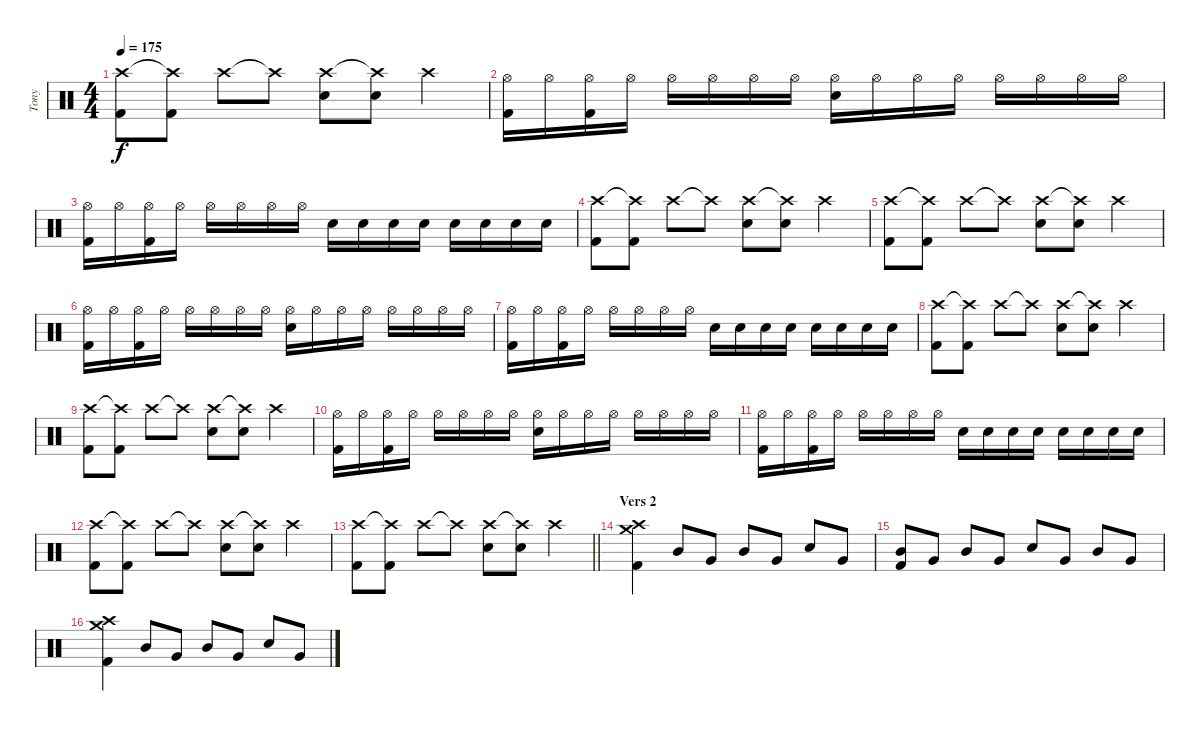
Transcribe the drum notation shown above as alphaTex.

\track ("Tony" "Tony") {instrument percussion}
\staff {score}
\articulation defaults
\ts (4 4)
\tempo 175
\clef neutral
\ks c
("Crash high (hit)" "Kick (hit) 2").8{dy f} ("Crash high (hit)"{t} "Kick (hit) 2").8 "Crash high (hit)".8 "Crash high (hit)"{t}.8 ("Crash high (hit)" "Snare (hit) 2").8 ("Crash high (hit)"{t} "Snare (hit) 2").8 "Crash high (hit)".4 |
("Hi-Hat (open)" "Kick (hit) 2").16 "Hi-Hat (open)".16 ("Hi-Hat (open)" "Kick (hit) 2").16 "Hi-Hat (open)".16 "Hi-Hat (open)".16 "Hi-Hat (open)".16 "Hi-Hat (open)".16 "Hi-Hat (open)".16 ("Hi-Hat (open)" "Snare (hit) 2").16 "Hi-Hat (open)".16 "Hi-Hat (open)".16 "Hi-Hat (open)".16 "Hi-Hat (open)".16 "Hi-Hat (open)".16 "Hi-Hat (open)".16 "Hi-Hat (open)".16 |
("Hi-Hat (open)" "Kick (hit) 2").16 "Hi-Hat (open)".16 ("Hi-Hat (open)" "Kick (hit) 2").16 "Hi-Hat (open)".16 "Hi-Hat (open)".16 "Hi-Hat (open)".16 "Hi-Hat (open)".16 "Hi-Hat (open)".16 "Snare (hit) 2".16 "Snare (hit) 2".16 "Snare (hit) 2".16 "Snare (hit) 2".16 "Snare (hit) 2".16 "Snare (hit) 2".16 "Snare (hit) 2".16 "Snare (hit) 2".16 |
("Crash high (hit)" "Kick (hit) 2").8 ("Crash high (hit)"{t} "Kick (hit) 2").8 "Crash high (hit)".8 "Crash high (hit)"{t}.8 ("Crash high (hit)" "Snare (hit) 2").8 ("Crash high (hit)"{t} "Snare (hit) 2").8 "Crash high (hit)".4 |
("Crash high (hit)" "Kick (hit) 2").8 ("Crash high (hit)"{t} "Kick (hit) 2").8 "Crash high (hit)".8 "Crash high (hit)"{t}.8 ("Crash high (hit)" "Snare (hit) 2").8 ("Crash high (hit)"{t} "Snare (hit) 2").8 "Crash high (hit)".4 |
("Hi-Hat (open)" "Kick (hit) 2").16 "Hi-Hat (open)".16 ("Hi-Hat (open)" "Kick (hit) 2").16 "Hi-Hat (open)".16 "Hi-Hat (open)".16 "Hi-Hat (open)".16 "Hi-Hat (open)".16 "Hi-Hat (open)".16 ("Hi-Hat (open)" "Snare (hit) 2").16 "Hi-Hat (open)".16 "Hi-Hat (open)".16 "Hi-Hat (open)".16 "Hi-Hat (open)".16 "Hi-Hat (open)".16 "Hi-Hat (open)".16 "Hi-Hat (open)".16 |
("Hi-Hat (open)" "Kick (hit) 2").16 "Hi-Hat (open)".16 ("Hi-Hat (open)" "Kick (hit) 2").16 "Hi-Hat (open)".16 "Hi-Hat (open)".16 "Hi-Hat (open)".16 "Hi-Hat (open)".16 "Hi-Hat (open)".16 "Snare (hit) 2".16 "Snare (hit) 2".16 "Snare (hit) 2".16 "Snare (hit) 2".16 "Snare (hit) 2".16 "Snare (hit) 2".16 "Snare (hit) 2".16 "Snare (hit) 2".16 |
("Crash high (hit)" "Kick (hit) 2").8 ("Crash high (hit)"{t} "Kick (hit) 2").8 "Crash high (hit)".8 "Crash high (hit)"{t}.8 ("Crash high (hit)" "Snare (hit) 2").8 ("Crash high (hit)"{t} "Snare (hit) 2").8 "Crash high (hit)".4 |
("Crash high (hit)" "Kick (hit) 2").8 ("Crash high (hit)"{t} "Kick (hit) 2").8 "Crash high (hit)".8 "Crash high (hit)"{t}.8 ("Crash high (hit)" "Snare (hit) 2").8 ("Crash high (hit)"{t} "Snare (hit) 2").8 "Crash high (hit)".4 |
("Hi-Hat (open)" "Kick (hit) 2").16 "Hi-Hat (open)".16 ("Hi-Hat (open)" "Kick (hit) 2").16 "Hi-Hat (open)".16 "Hi-Hat (open)".16 "Hi-Hat (open)".16 "Hi-Hat (open)".16 "Hi-Hat (open)".16 ("Hi-Hat (open)" "Snare (hit) 2").16 "Hi-Hat (open)".16 "Hi-Hat (open)".16 "Hi-Hat (open)".16 "Hi-Hat (open)".16 "Hi-Hat (open)".16 "Hi-Hat (open)".16 "Hi-Hat (open)".16 |
("Hi-Hat (open)" "Kick (hit) 2").16 "Hi-Hat (open)".16 ("Hi-Hat (open)" "Kick (hit) 2").16 "Hi-Hat (open)".16 "Hi-Hat (open)".16 "Hi-Hat (open)".16 "Hi-Hat (open)".16 "Hi-Hat (open)".16 "Snare (hit) 2".16 "Snare (hit) 2".16 "Snare (hit) 2".16 "Snare (hit) 2".16 "Snare (hit) 2".16 "Snare (hit) 2".16 "Snare (hit) 2".16 "Snare (hit) 2".16 |
("Crash high (hit)" "Kick (hit) 2").8 ("Crash high (hit)"{t} "Kick (hit) 2").8 "Crash high (hit)".8 "Crash high (hit)"{t}.8 ("Crash high (hit)" "Snare (hit) 2").8 ("Crash high (hit)"{t} "Snare (hit) 2").8 "Crash high (hit)".4 |
\barLineRight lightlight
("Crash high (hit)" "Kick (hit) 2").8 ("Crash high (hit)"{t} "Kick (hit) 2").8 "Crash high (hit)".8 "Crash high (hit)"{t}.8 ("Crash high (hit)" "Snare (hit) 2").8 ("Crash high (hit)"{t} "Snare (hit) 2").8 "Crash high (hit)".4 |
\section ("" "Vers 2")
("Crash high (hit)" "Crash medium (hit)" "Kick (hit) 2").4 "Mid Tom (hit)".8 "Very Low Tom (hit)".8 "Mid Tom (hit)".8 "Very Low Tom (hit)".8 "Snare (hit) 2".8 "Very Low Tom (hit)".8 |
("Mid Tom (hit)" "Kick (hit) 2").8 "Very Low Tom (hit)".8 "Mid Tom (hit)".8 "Very Low Tom (hit)".8 "Snare (hit) 2".8 "Very Low Tom (hit)".8 "Mid Tom (hit)".8 "Very Low Tom (hit)".8 |
("Crash high (hit)" "Crash medium (hit)" "Kick (hit) 2").4 "Mid Tom (hit)".8 "Very Low Tom (hit)".8 "Mid Tom (hit)".8 "Very Low Tom (hit)".8 "Snare (hit) 2".8 "Very Low Tom (hit)".8
